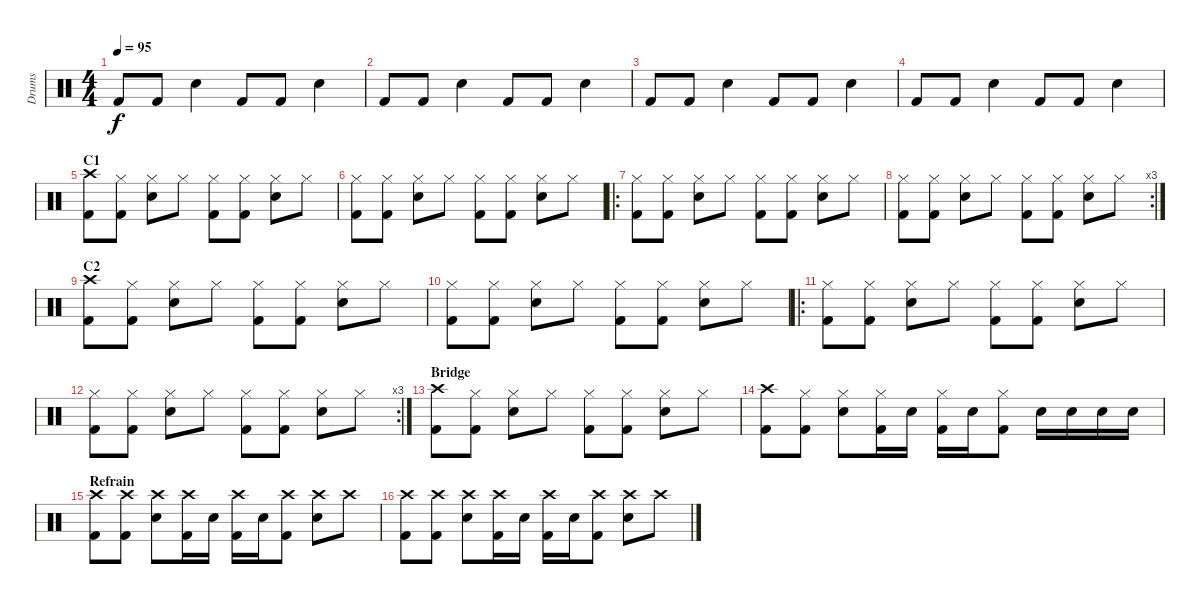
\track ("Drums" "Drums") {instrument percussion}
\staff {score}
\articulation defaults
\ts (4 4)
\tempo 95
\clef neutral
\ks c "Kick (hit) 2".8{dy f} "Kick (hit) 2".8 "Electric Snare (hit)".4 "Kick (hit) 2".8 "Kick (hit) 2".8 "Electric Snare (hit)".4
|
"Kick (hit) 2".8 "Kick (hit) 2".8 "Electric Snare (hit)".4 "Kick (hit) 2".8 "Kick (hit) 2".8 "Electric Snare (hit)".4 |
"Kick (hit) 2".8 "Kick (hit) 2".8 "Electric Snare (hit)".4 "Kick (hit) 2".8 "Kick (hit) 2".8 "Electric Snare (hit)".4 |
"Kick (hit) 2".8 "Kick (hit) 2".8 "Electric Snare (hit)".4 "Kick (hit) 2".8 "Kick (hit) 2".8 "Electric Snare (hit)".4 |
\section ("" "C1")
("Crash high (hit)" "Kick (hit) 2").8{volume 15} ("Hi-Hat (closed)" "Kick (hit) 2").8 ("Hi-Hat (closed)" "Electric Snare (hit)").8 "Hi-Hat (closed)".8 ("Hi-Hat (closed)" "Kick (hit) 2").8 ("Hi-Hat (closed)" "Kick (hit) 2").8 ("Hi-Hat (closed)" "Electric Snare (hit)").8 "Hi-Hat (closed)".8 |
("Hi-Hat (closed)" "Kick (hit) 2").8 ("Hi-Hat (closed)" "Kick (hit) 2").8 ("Hi-Hat (closed)" "Electric Snare (hit)").8 "Hi-Hat (closed)".8 ("Hi-Hat (closed)" "Kick (hit) 2").8 ("Hi-Hat (closed)" "Kick (hit) 2").8 ("Hi-Hat (closed)" "Electric Snare (hit)").8 "Hi-Hat (closed)".8 |
\ro
("Hi-Hat (closed)" "Kick (hit) 2").8 ("Hi-Hat (closed)" "Kick (hit) 2").8 ("Hi-Hat (closed)" "Electric Snare (hit)").8 "Hi-Hat (closed)".8 ("Hi-Hat (closed)" "Kick (hit) 2").8 ("Hi-Hat (closed)" "Kick (hit) 2").8 ("Hi-Hat (closed)" "Electric Snare (hit)").8 "Hi-Hat (closed)".8 |
\rc 3
("Hi-Hat (closed)" "Kick (hit) 2").8 ("Hi-Hat (closed)" "Kick (hit) 2").8 ("Hi-Hat (closed)" "Electric Snare (hit)").8 "Hi-Hat (closed)".8 ("Hi-Hat (closed)" "Kick (hit) 2").8 ("Hi-Hat (closed)" "Kick (hit) 2").8 ("Hi-Hat (closed)" "Electric Snare (hit)").8 "Hi-Hat (closed)".8 |
\section ("" "C2")
("Crash high (hit)" "Kick (hit) 2").8 ("Hi-Hat (closed)" "Kick (hit) 2").8 ("Hi-Hat (closed)" "Electric Snare (hit)").8 "Hi-Hat (closed)".8 ("Hi-Hat (closed)" "Kick (hit) 2").8 ("Hi-Hat (closed)" "Kick (hit) 2").8 ("Hi-Hat (closed)" "Electric Snare (hit)").8 "Hi-Hat (closed)".8 |
("Hi-Hat (closed)" "Kick (hit) 2").8 ("Hi-Hat (closed)" "Kick (hit) 2").8 ("Hi-Hat (closed)" "Electric Snare (hit)").8 "Hi-Hat (closed)".8 ("Hi-Hat (closed)" "Kick (hit) 2").8 ("Hi-Hat (closed)" "Kick (hit) 2").8 ("Hi-Hat (closed)" "Electric Snare (hit)").8 "Hi-Hat (closed)".8 |
\ro
("Hi-Hat (closed)" "Kick (hit) 2").8 ("Hi-Hat (closed)" "Kick (hit) 2").8 ("Hi-Hat (closed)" "Electric Snare (hit)").8 "Hi-Hat (closed)".8 ("Hi-Hat (closed)" "Kick (hit) 2").8 ("Hi-Hat (closed)" "Kick (hit) 2").8 ("Hi-Hat (closed)" "Electric Snare (hit)").8 "Hi-Hat (closed)".8 |
\rc 3
("Hi-Hat (closed)" "Kick (hit) 2").8 ("Hi-Hat (closed)" "Kick (hit) 2").8 ("Hi-Hat (closed)" "Electric Snare (hit)").8 "Hi-Hat (closed)".8 ("Hi-Hat (closed)" "Kick (hit) 2").8 ("Hi-Hat (closed)" "Kick (hit) 2").8 ("Hi-Hat (closed)" "Electric Snare (hit)").8 "Hi-Hat (closed)".8 |
\section ("" "Bridge")
("Crash high (hit)" "Kick (hit) 2").8 ("Hi-Hat (closed)" "Kick (hit) 2").8 ("Hi-Hat (closed)" "Electric Snare (hit)").8 "Hi-Hat (closed)".8 ("Hi-Hat (closed)" "Kick (hit) 2").8 ("Hi-Hat (closed)" "Kick (hit) 2").8 ("Hi-Hat (closed)" "Electric Snare (hit)").8 "Hi-Hat (closed)".8 |
("Crash high (hit)" "Kick (hit) 2").8 ("Hi-Hat (closed)" "Kick (hit) 2").8 ("Hi-Hat (closed)" "Electric Snare (hit)").8 ("Hi-Hat (closed)" "Kick (hit) 2").16 "Electric Snare (hit)".16 ("Hi-Hat (closed)" "Kick (hit) 2").16 "Electric Snare (hit)".16 ("Hi-Hat (closed)" "Kick (hit) 2").8 "Electric Snare (hit)".16 "Electric Snare (hit)".16 "Electric Snare (hit)".16 "Electric Snare (hit)".16 |
\section ("" "Refrain")
("Crash high (hit)" "Kick (hit) 2").8 ("Crash high (hit)" "Kick (hit) 2").8 ("Crash high (hit)" "Electric Snare (hit)").8 ("Crash high (hit)" "Kick (hit) 2").16 "Electric Snare (hit)".16 ("Crash high (hit)" "Kick (hit) 2").16 "Electric Snare (hit)".16 ("Crash high (hit)" "Kick (hit) 2").8 ("Crash high (hit)" "Electric Snare (hit)").8 "Crash high (hit)".8 |
("Crash high (hit)" "Kick (hit) 2").8 ("Crash high (hit)" "Kick (hit) 2").8 ("Crash high (hit)" "Electric Snare (hit)").8 ("Crash high (hit)" "Kick (hit) 2").16 "Electric Snare (hit)".16 ("Crash high (hit)" "Kick (hit) 2").16 "Electric Snare (hit)".16 ("Crash high (hit)" "Kick (hit) 2").8 ("Crash high (hit)" "Electric Snare (hit)").8 "Crash high (hit)".8
